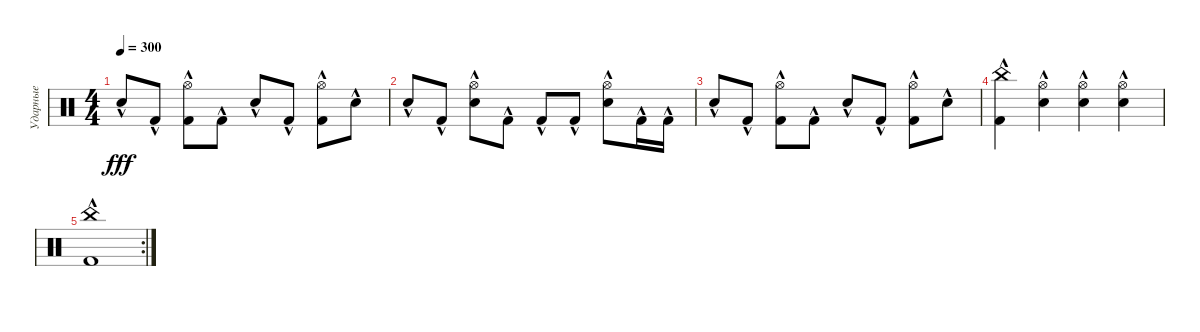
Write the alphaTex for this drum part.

\track ("Ударные" "Ударные") {instrument percussion}
\staff
\articulation defaults
\ts (4 4)
\tempo 300
\clef neutral
\ks c "Snare (hit) 2"{hac}.8{dy fff} "Kick (hit) 2"{hac}.8
("Hi-Hat (open)" "Kick (hit) 2"{hac}).8 "Kick (hit) 2"{hac}.8 "Snare (hit) 2"{hac}.8 "Kick (hit) 2"{hac}.8 ("Hi-Hat (open)" "Kick (hit) 2"{hac}).8 "Snare (hit) 2"{hac}.8 |
"Snare (hit) 2"{hac}.8 "Kick (hit) 2"{hac}.8 ("Hi-Hat (open)" "Snare (hit) 2"{hac}).8 "Kick (hit) 2"{hac}.8 "Kick (hit) 2"{hac}.8 "Kick (hit) 2"{hac}.8 ("Hi-Hat (open)" "Snare (hit) 2"{hac}).8 "Kick (hit) 2"{hac}.16 "Kick (hit) 2"{hac}.16 |
"Snare (hit) 2"{hac}.8 "Kick (hit) 2"{hac}.8 ("Hi-Hat (open)" "Kick (hit) 2"{hac}).8 "Kick (hit) 2"{hac}.8 "Snare (hit) 2"{hac}.8 "Kick (hit) 2"{hac}.8 ("Hi-Hat (open)" "Kick (hit) 2"{hac}).8 "Snare (hit) 2"{hac}.8 |
("China (hit)" "Kick (hit) 2"{hac}).4 ("Hi-Hat (open)" "Snare (hit) 2"{hac}).4 ("Hi-Hat (open)" "Snare (hit) 2"{hac}).4 ("Hi-Hat (open)" "Snare (hit) 2"{hac}).4 |
\rc 2
("China (hit)" "Kick (hit) 2"{hac}).1
